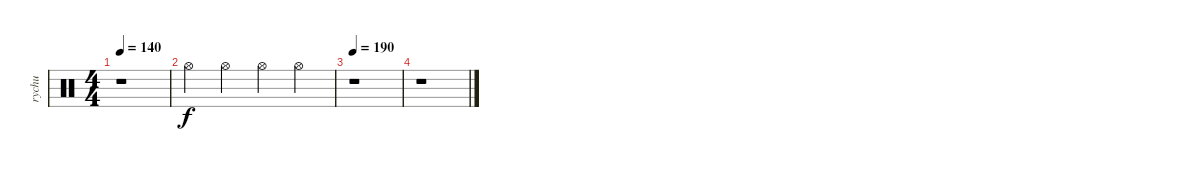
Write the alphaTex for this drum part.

\track ("rychu" "rychu") {instrument percussion}
\staff {score}
\articulation defaults
\ts (4 4)
\tempo 140
\clef neutral
\ks c
r.1{dy f} |
"Hi-Hat (open)".4 "Hi-Hat (open)".4 "Hi-Hat (open)".4 "Hi-Hat (open)".4 |
\tempo 190
r.1 |
r.1
